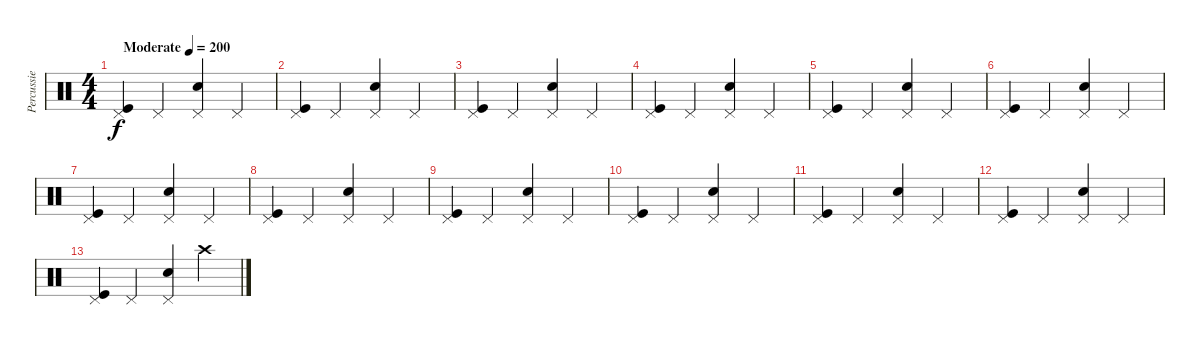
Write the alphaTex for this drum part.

\track ("Percussie" "Percussie") {instrument percussion}
\staff {score}
\articulation defaults
\ts (4 4)
\tempo (200 "Moderate")
\clef neutral
\ks c
("Pedal Hi-Hat (hit)" "Kick (hit)").4{dy f} "Pedal Hi-Hat (hit)".4 ("Pedal Hi-Hat (hit)" "Snare (hit) 2").4 "Pedal Hi-Hat (hit)".4 |
("Pedal Hi-Hat (hit)" "Kick (hit)").4 "Pedal Hi-Hat (hit)".4 ("Pedal Hi-Hat (hit)" "Snare (hit) 2").4 "Pedal Hi-Hat (hit)".4 |
("Pedal Hi-Hat (hit)" "Kick (hit)").4 "Pedal Hi-Hat (hit)".4 ("Pedal Hi-Hat (hit)" "Snare (hit) 2").4 "Pedal Hi-Hat (hit)".4 |
("Pedal Hi-Hat (hit)" "Kick (hit)").4 "Pedal Hi-Hat (hit)".4 ("Pedal Hi-Hat (hit)" "Snare (hit) 2").4 "Pedal Hi-Hat (hit)".4 |
("Pedal Hi-Hat (hit)" "Kick (hit)").4 "Pedal Hi-Hat (hit)".4 ("Pedal Hi-Hat (hit)" "Snare (hit) 2").4 "Pedal Hi-Hat (hit)".4 |
("Pedal Hi-Hat (hit)" "Kick (hit)").4 "Pedal Hi-Hat (hit)".4 ("Pedal Hi-Hat (hit)" "Snare (hit) 2").4 "Pedal Hi-Hat (hit)".4 |
("Pedal Hi-Hat (hit)" "Kick (hit)").4 "Pedal Hi-Hat (hit)".4 ("Pedal Hi-Hat (hit)" "Snare (hit) 2").4 "Pedal Hi-Hat (hit)".4 |
("Pedal Hi-Hat (hit)" "Kick (hit)").4 "Pedal Hi-Hat (hit)".4 ("Pedal Hi-Hat (hit)" "Snare (hit) 2").4 "Pedal Hi-Hat (hit)".4 |
("Pedal Hi-Hat (hit)" "Kick (hit)").4 "Pedal Hi-Hat (hit)".4 ("Pedal Hi-Hat (hit)" "Snare (hit) 2").4 "Pedal Hi-Hat (hit)".4 |
("Pedal Hi-Hat (hit)" "Kick (hit)").4 "Pedal Hi-Hat (hit)".4 ("Pedal Hi-Hat (hit)" "Snare (hit) 2").4 "Pedal Hi-Hat (hit)".4 |
("Pedal Hi-Hat (hit)" "Kick (hit)").4 "Pedal Hi-Hat (hit)".4 ("Pedal Hi-Hat (hit)" "Snare (hit) 2").4 "Pedal Hi-Hat (hit)".4 |
("Pedal Hi-Hat (hit)" "Kick (hit)").4 "Pedal Hi-Hat (hit)".4 ("Pedal Hi-Hat (hit)" "Snare (hit) 2").4 "Pedal Hi-Hat (hit)".4 |
("Pedal Hi-Hat (hit)" "Kick (hit)").4 "Pedal Hi-Hat (hit)".4 ("Pedal Hi-Hat (hit)" "Snare (hit) 2").4 "Crash high (hit)".4
